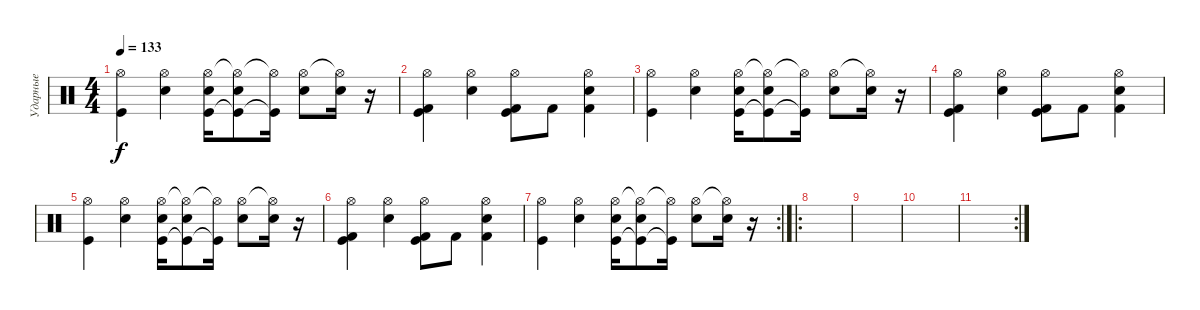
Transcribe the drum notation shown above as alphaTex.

\track ("Ударные" "Ударные") {instrument percussion}
\staff {score}
\articulation defaults
\ts (4 4)
\tempo 133
\clef neutral
\ks c
("Hi-Hat (open)" "Kick (hit)").4{dy f} ("Hi-Hat (open)" "Snare (hit) 2").4 ("Hi-Hat (open)" "Kick (hit)" "Snare (hit) 2").16 ("Hi-Hat (open)"{t} "Kick (hit)"{t} "Snare (hit) 2").8 ("Hi-Hat (open)"{t} "Kick (hit)"{t}).16 ("Hi-Hat (open)" "Snare (hit) 2").8 ("Hi-Hat (open)"{t} "Snare (hit) 2").16 r.16 |
("Hi-Hat (open)" "Kick (hit) 2" "Kick (hit)").4 ("Hi-Hat (open)" "Snare (hit) 2").4 ("Hi-Hat (open)" "Kick (hit) 2" "Kick (hit)").8 "Kick (hit) 2".8 ("Hi-Hat (open)" "Kick (hit) 2" "Snare (hit) 2").4 |
("Hi-Hat (open)" "Kick (hit)").4 ("Hi-Hat (open)" "Snare (hit) 2").4 ("Hi-Hat (open)" "Kick (hit)" "Snare (hit) 2").16 ("Hi-Hat (open)"{t} "Kick (hit)"{t} "Snare (hit) 2").8 ("Hi-Hat (open)"{t} "Kick (hit)"{t}).16 ("Hi-Hat (open)" "Snare (hit) 2").8 ("Hi-Hat (open)"{t} "Snare (hit) 2").16 r.16 |
("Hi-Hat (open)" "Kick (hit) 2" "Kick (hit)").4 ("Hi-Hat (open)" "Snare (hit) 2").4 ("Hi-Hat (open)" "Kick (hit) 2" "Kick (hit)").8 "Kick (hit) 2".8 ("Hi-Hat (open)" "Kick (hit) 2" "Snare (hit) 2").4 |
("Hi-Hat (open)" "Kick (hit)").4 ("Hi-Hat (open)" "Snare (hit) 2").4 ("Hi-Hat (open)" "Kick (hit)" "Snare (hit) 2").16 ("Hi-Hat (open)"{t} "Kick (hit)"{t} "Snare (hit) 2").8 ("Hi-Hat (open)"{t} "Kick (hit)"{t}).16 ("Hi-Hat (open)" "Snare (hit) 2").8 ("Hi-Hat (open)"{t} "Snare (hit) 2").16 r.16 |
("Hi-Hat (open)" "Kick (hit) 2" "Kick (hit)").4 ("Hi-Hat (open)" "Snare (hit) 2").4 ("Hi-Hat (open)" "Kick (hit) 2" "Kick (hit)").8 "Kick (hit) 2".8 ("Hi-Hat (open)" "Kick (hit) 2" "Snare (hit) 2").4 |
\rc 2
("Hi-Hat (open)" "Kick (hit)").4 ("Hi-Hat (open)" "Snare (hit) 2").4 ("Hi-Hat (open)" "Kick (hit)" "Snare (hit) 2").16 ("Hi-Hat (open)"{t} "Kick (hit)"{t} "Snare (hit) 2").8 ("Hi-Hat (open)"{t} "Kick (hit)"{t}).16 ("Hi-Hat (open)" "Snare (hit) 2").8 ("Hi-Hat (open)"{t} "Snare (hit) 2").16 r.16 |
\ro
|
|
|
\rc 2
